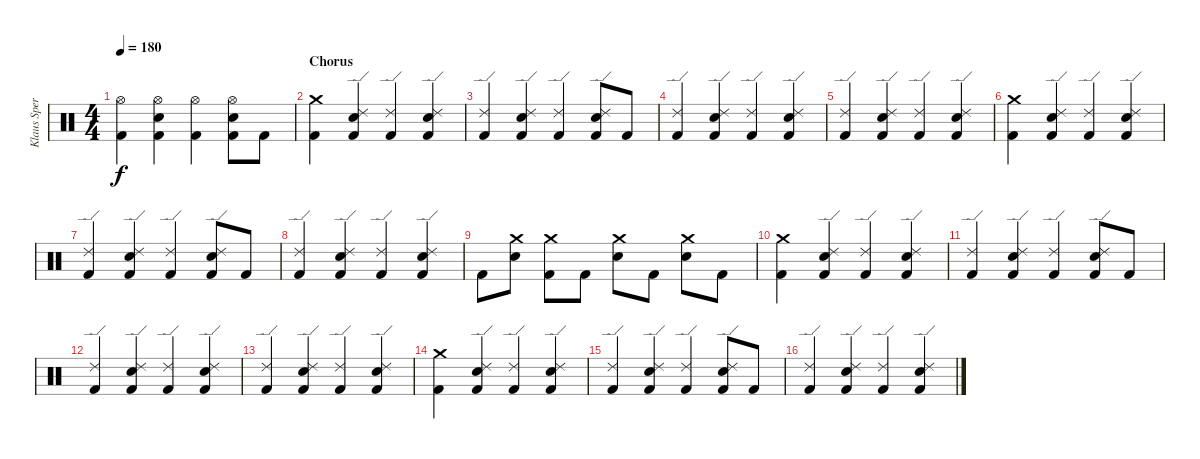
\track ("Klaus Sperling Drums" "Klaus Sper") {instrument percussion}
\staff {score}
\articulation defaults
\ts (4 4)
\tempo 180
\clef neutral
\ks c
("Hi-Hat (open)" "Kick (hit) 2").4{dy f} ("Hi-Hat (open)" "Electric Snare (hit)" "Kick (hit) 2").4 ("Hi-Hat (open)" "Kick (hit) 2").4 ("Hi-Hat (open)" "Electric Snare (hit)" "Kick (hit) 2").8 "Kick (hit) 2".8 |
\section ("" "Chorus")
("Crash medium (hit)" "Kick (hit) 2").4 ("Ride (edge) 2" "Electric Snare (hit)" "Kick (hit) 2").4 ("Ride (edge) 2" "Kick (hit) 2").4 ("Ride (edge) 2" "Electric Snare (hit)" "Kick (hit) 2").4 |
("Ride (edge) 2" "Kick (hit) 2").4 ("Ride (edge) 2" "Electric Snare (hit)" "Kick (hit) 2").4 ("Ride (edge) 2" "Kick (hit) 2").4 ("Ride (edge) 2" "Electric Snare (hit)" "Kick (hit) 2").8 "Kick (hit) 2".8 |
("Ride (edge) 2" "Kick (hit) 2").4 ("Ride (edge) 2" "Electric Snare (hit)" "Kick (hit) 2").4 ("Ride (edge) 2" "Kick (hit) 2").4 ("Ride (edge) 2" "Electric Snare (hit)" "Kick (hit) 2").4 |
("Ride (edge) 2" "Kick (hit) 2").4 ("Ride (edge) 2" "Electric Snare (hit)" "Kick (hit) 2").4 ("Ride (edge) 2" "Kick (hit) 2").4 ("Ride (edge) 2" "Electric Snare (hit)" "Kick (hit) 2").4 |
("Crash medium (hit)" "Kick (hit) 2").4 ("Ride (edge) 2" "Electric Snare (hit)" "Kick (hit) 2").4 ("Ride (edge) 2" "Kick (hit) 2").4 ("Ride (edge) 2" "Electric Snare (hit)" "Kick (hit) 2").4 |
("Ride (edge) 2" "Kick (hit) 2").4 ("Ride (edge) 2" "Electric Snare (hit)" "Kick (hit) 2").4 ("Ride (edge) 2" "Kick (hit) 2").4 ("Ride (edge) 2" "Electric Snare (hit)" "Kick (hit) 2").8 "Kick (hit) 2".8 |
("Ride (edge) 2" "Kick (hit) 2").4 ("Ride (edge) 2" "Electric Snare (hit)" "Kick (hit) 2").4 ("Ride (edge) 2" "Kick (hit) 2").4 ("Ride (edge) 2" "Electric Snare (hit)" "Kick (hit) 2").4 |
"Kick (hit) 2".8 ("Crash medium (hit)" "Electric Snare (hit)").8 ("Crash medium (hit)" "Kick (hit) 2").8 "Kick (hit) 2".8 ("Crash medium (hit)" "Electric Snare (hit)").8 "Kick (hit) 2".8 ("Crash medium (hit)" "Electric Snare (hit)").8 "Kick (hit) 2".8 |
("Crash medium (hit)" "Kick (hit) 2").4 ("Ride (edge) 2" "Electric Snare (hit)" "Kick (hit) 2").4 ("Ride (edge) 2" "Kick (hit) 2").4 ("Ride (edge) 2" "Electric Snare (hit)" "Kick (hit) 2").4 |
("Ride (edge) 2" "Kick (hit) 2").4 ("Ride (edge) 2" "Electric Snare (hit)" "Kick (hit) 2").4 ("Ride (edge) 2" "Kick (hit) 2").4 ("Ride (edge) 2" "Electric Snare (hit)" "Kick (hit) 2").8 "Kick (hit) 2".8 |
("Ride (edge) 2" "Kick (hit) 2").4 ("Ride (edge) 2" "Electric Snare (hit)" "Kick (hit) 2").4 ("Ride (edge) 2" "Kick (hit) 2").4 ("Ride (edge) 2" "Electric Snare (hit)" "Kick (hit) 2").4 |
("Ride (edge) 2" "Kick (hit) 2").4 ("Ride (edge) 2" "Electric Snare (hit)" "Kick (hit) 2").4 ("Ride (edge) 2" "Kick (hit) 2").4 ("Ride (edge) 2" "Electric Snare (hit)" "Kick (hit) 2").4 |
("Crash medium (hit)" "Kick (hit) 2").4 ("Ride (edge) 2" "Electric Snare (hit)" "Kick (hit) 2").4 ("Ride (edge) 2" "Kick (hit) 2").4 ("Ride (edge) 2" "Electric Snare (hit)" "Kick (hit) 2").4 |
("Ride (edge) 2" "Kick (hit) 2").4 ("Ride (edge) 2" "Electric Snare (hit)" "Kick (hit) 2").4 ("Ride (edge) 2" "Kick (hit) 2").4 ("Ride (edge) 2" "Electric Snare (hit)" "Kick (hit) 2").8 "Kick (hit) 2".8 |
("Ride (edge) 2" "Kick (hit) 2").4 ("Ride (edge) 2" "Electric Snare (hit)" "Kick (hit) 2").4 ("Ride (edge) 2" "Kick (hit) 2").4 ("Ride (edge) 2" "Electric Snare (hit)" "Kick (hit) 2").4
